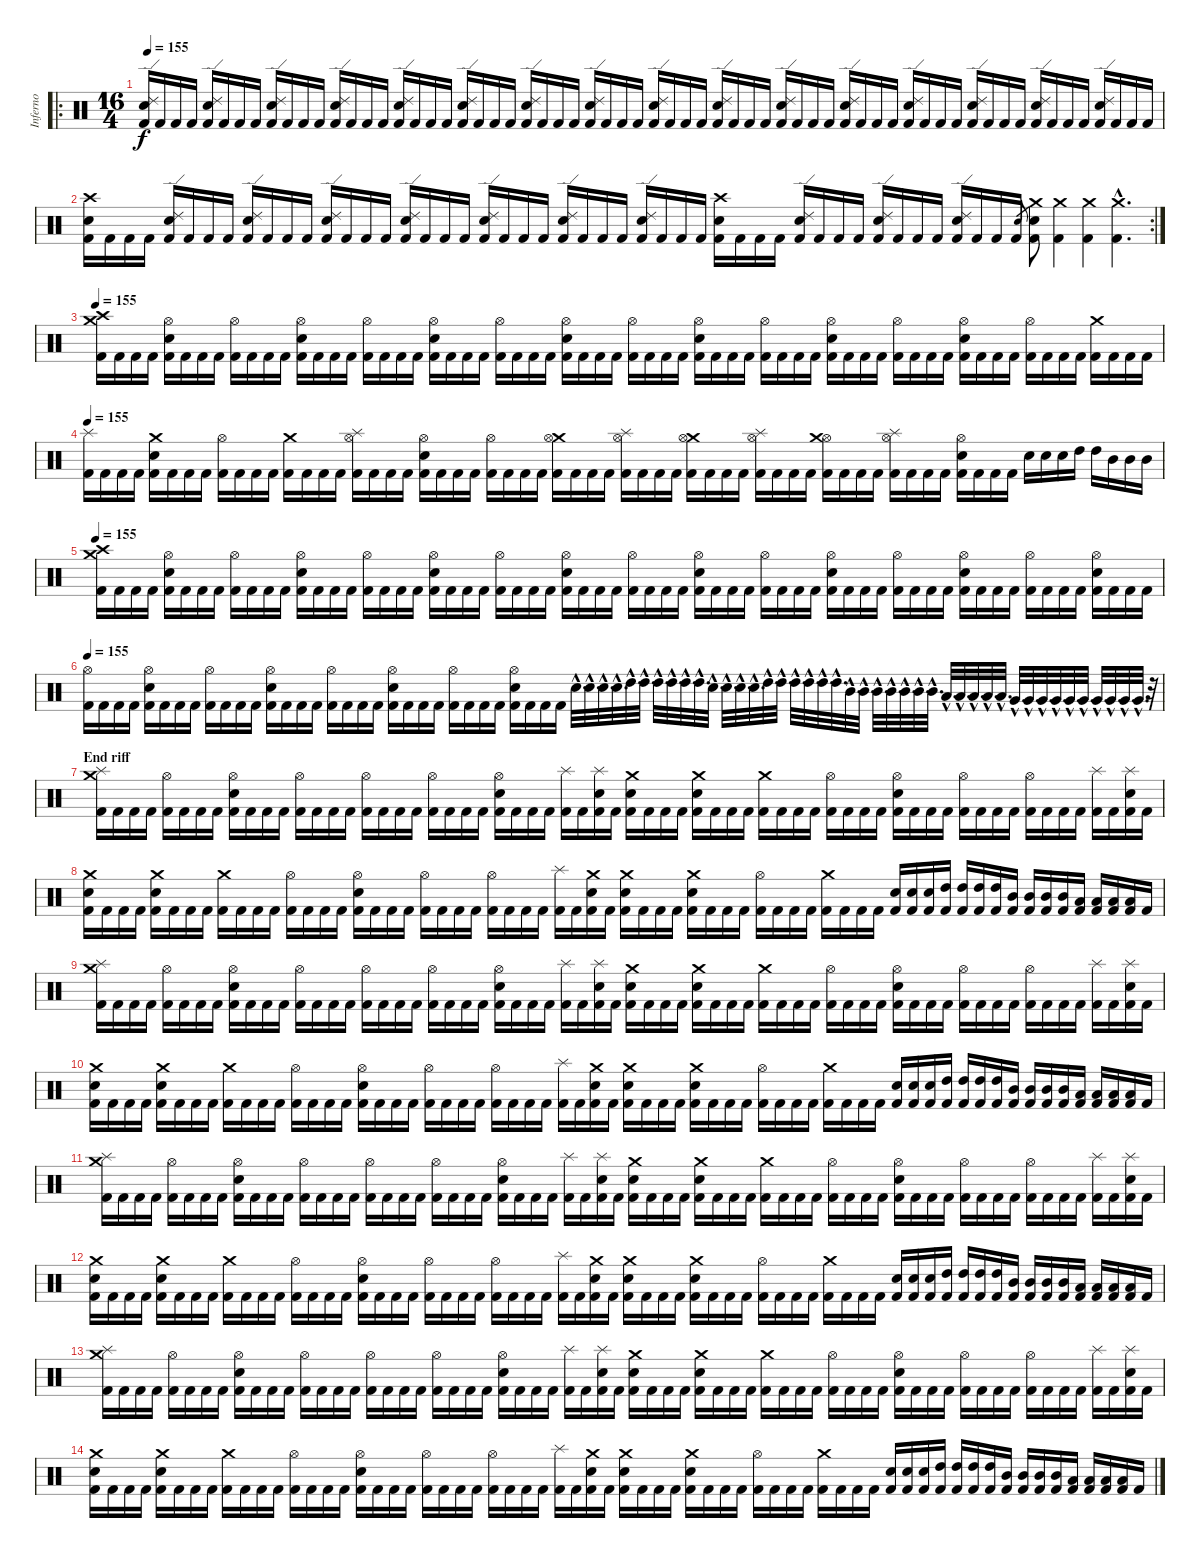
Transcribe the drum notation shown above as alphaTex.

\track ("Inferno" "Inferno") {instrument percussion}
\staff {score}
\articulation defaults
\ro
\ts (16 4)
\tempo 155
\clef neutral
\ks c
("Kick (hit) 2" "Electric Snare (hit)" "Ride (edge) 2").16{dy f} "Kick (hit) 2".16 "Kick (hit) 2".16 "Kick (hit) 2".16 ("Kick (hit) 2" "Ride (edge) 2" "Electric Snare (hit)").16 "Kick (hit) 2".16 "Kick (hit) 2".16 "Kick (hit) 2".16 ("Kick (hit) 2" "Electric Snare (hit)" "Ride (edge) 2").16 "Kick (hit) 2".16 "Kick (hit) 2".16 "Kick (hit) 2".16 ("Kick (hit) 2" "Ride (edge) 2" "Electric Snare (hit)").16 "Kick (hit) 2".16 "Kick (hit) 2".16 "Kick (hit) 2".16 ("Kick (hit) 2" "Electric Snare (hit)" "Ride (edge) 2").16 "Kick (hit) 2".16 "Kick (hit) 2".16 "Kick (hit) 2".16 ("Kick (hit) 2" "Ride (edge) 2" "Electric Snare (hit)").16 "Kick (hit) 2".16 "Kick (hit) 2".16 "Kick (hit) 2".16 ("Kick (hit) 2" "Electric Snare (hit)" "Ride (edge) 2").16 "Kick (hit) 2".16 "Kick (hit) 2".16 "Kick (hit) 2".16 ("Kick (hit) 2" "Ride (edge) 2" "Electric Snare (hit)").16 "Kick (hit) 2".16 "Kick (hit) 2".16 "Kick (hit) 2".16 ("Kick (hit) 2" "Electric Snare (hit)" "Ride (edge) 2").16 "Kick (hit) 2".16 "Kick (hit) 2".16 "Kick (hit) 2".16 ("Kick (hit) 2" "Ride (edge) 2" "Electric Snare (hit)").16 "Kick (hit) 2".16 "Kick (hit) 2".16 "Kick (hit) 2".16 ("Kick (hit) 2" "Electric Snare (hit)" "Ride (edge) 2").16 "Kick (hit) 2".16 "Kick (hit) 2".16 "Kick (hit) 2".16 ("Kick (hit) 2" "Ride (edge) 2" "Electric Snare (hit)").16 "Kick (hit) 2".16 "Kick (hit) 2".16 "Kick (hit) 2".16 ("Kick (hit) 2" "Electric Snare (hit)" "Ride (edge) 2").16 "Kick (hit) 2".16 "Kick (hit) 2".16 "Kick (hit) 2".16 ("Kick (hit) 2" "Ride (edge) 2" "Electric Snare (hit)").16 "Kick (hit) 2".16 "Kick (hit) 2".16 "Kick (hit) 2".16 ("Kick (hit) 2" "Electric Snare (hit)" "Ride (edge) 2").16 "Kick (hit) 2".16 "Kick (hit) 2".16 "Kick (hit) 2".16 ("Kick (hit) 2" "Ride (edge) 2" "Electric Snare (hit)").16 "Kick (hit) 2".16 "Kick (hit) 2".16 "Kick (hit) 2".16 |
\rc 2
("Kick (hit) 2" "Electric Snare (hit)" "Crash high (hit)").16 "Kick (hit) 2".16 "Kick (hit) 2".16 "Kick (hit) 2".16 ("Kick (hit) 2" "Ride (edge) 2" "Electric Snare (hit)").16 "Kick (hit) 2".16 "Kick (hit) 2".16 "Kick (hit) 2".16 ("Kick (hit) 2" "Electric Snare (hit)" "Ride (edge) 2").16 "Kick (hit) 2".16 "Kick (hit) 2".16 "Kick (hit) 2".16 ("Kick (hit) 2" "Ride (edge) 2" "Electric Snare (hit)").16 "Kick (hit) 2".16 "Kick (hit) 2".16 "Kick (hit) 2".16 ("Kick (hit) 2" "Electric Snare (hit)" "Ride (edge) 2").16 "Kick (hit) 2".16 "Kick (hit) 2".16 "Kick (hit) 2".16 ("Kick (hit) 2" "Ride (edge) 2" "Electric Snare (hit)").16 "Kick (hit) 2".16 "Kick (hit) 2".16 "Kick (hit) 2".16 ("Kick (hit) 2" "Electric Snare (hit)" "Ride (edge) 2").16 "Kick (hit) 2".16 "Kick (hit) 2".16 "Kick (hit) 2".16 ("Kick (hit) 2" "Ride (edge) 2" "Electric Snare (hit)").16 "Kick (hit) 2".16 "Kick (hit) 2".16 "Kick (hit) 2".16 ("Kick (hit) 2" "Electric Snare (hit)" "Crash high (hit)").16 "Kick (hit) 2".16 "Kick (hit) 2".16 "Kick (hit) 2".16 ("Kick (hit) 2" "Ride (edge) 2" "Electric Snare (hit)").16 "Kick (hit) 2".16 "Kick (hit) 2".16 "Kick (hit) 2".16 ("Kick (hit) 2" "Electric Snare (hit)" "Ride (edge) 2").16 "Kick (hit) 2".16 "Kick (hit) 2".16 "Kick (hit) 2".16 ("Kick (hit) 2" "Ride (edge) 2" "Electric Snare (hit)").16 "Kick (hit) 2".16 "Kick (hit) 2".16 "Kick (hit) 2".16 "Electric Snare (hit)".8{gr} ("Crash medium (hit)" "Electric Snare (hit)" "Kick (hit) 2").8 ("Crash medium (hit)" "Kick (hit) 2").4 ("Crash medium (hit)" "Kick (hit) 2").4 ("Crash medium (hit)"{hac} "Kick (hit) 2"{hac}).4{d} |
\tempo 155
("Kick (hit) 2" "Crash medium (hit)" "Crash high (hit)").16 "Kick (hit) 2".16 "Kick (hit) 2".16 "Kick (hit) 2".16 ("Kick (hit) 2" "Hi-Hat (open)" "Electric Snare (hit)").16 "Kick (hit) 2".16 "Kick (hit) 2".16 "Kick (hit) 2".16 ("Kick (hit) 2" "Hi-Hat (open)").16 "Kick (hit) 2".16 "Kick (hit) 2".16 "Kick (hit) 2".16 ("Kick (hit) 2" "Hi-Hat (open)" "Electric Snare (hit)").16 "Kick (hit) 2".16 "Kick (hit) 2".16 "Kick (hit) 2".16 ("Kick (hit) 2" "Hi-Hat (open)").16 "Kick (hit) 2".16 "Kick (hit) 2".16 "Kick (hit) 2".16 ("Kick (hit) 2" "Hi-Hat (open)" "Electric Snare (hit)").16 "Kick (hit) 2".16 "Kick (hit) 2".16 "Kick (hit) 2".16 ("Kick (hit) 2" "Hi-Hat (open)").16 "Kick (hit) 2".16 "Kick (hit) 2".16 "Kick (hit) 2".16 ("Kick (hit) 2" "Hi-Hat (open)" "Electric Snare (hit)").16 "Kick (hit) 2".16 "Kick (hit) 2".16 "Kick (hit) 2".16 ("Kick (hit) 2" "Hi-Hat (open)").16 "Kick (hit) 2".16 "Kick (hit) 2".16 "Kick (hit) 2".16 ("Kick (hit) 2" "Hi-Hat (open)" "Electric Snare (hit)").16 "Kick (hit) 2".16 "Kick (hit) 2".16 "Kick (hit) 2".16 ("Kick (hit) 2" "Hi-Hat (open)").16 "Kick (hit) 2".16 "Kick (hit) 2".16 "Kick (hit) 2".16 ("Kick (hit) 2" "Hi-Hat (open)" "Electric Snare (hit)").16 "Kick (hit) 2".16 "Kick (hit) 2".16 "Kick (hit) 2".16 ("Kick (hit) 2" "Hi-Hat (open)").16 "Kick (hit) 2".16 "Kick (hit) 2".16 "Kick (hit) 2".16 ("Kick (hit) 2" "Hi-Hat (open)" "Electric Snare (hit)").16 "Kick (hit) 2".16 "Kick (hit) 2".16 "Kick (hit) 2".16 ("Kick (hit) 2" "Hi-Hat (open)").16 "Kick (hit) 2".16 "Kick (hit) 2".16 "Kick (hit) 2".16 ("Kick (hit) 2" "Crash medium (hit)").16 "Kick (hit) 2".16 "Kick (hit) 2".16 "Kick (hit) 2".16 |
\tempo 155
("Kick (hit) 2" "Splash (hit)").16 "Kick (hit) 2".16 "Kick (hit) 2".16 "Kick (hit) 2".16 ("Kick (hit) 2" "Crash medium (hit)" "Electric Snare (hit)").16 "Kick (hit) 2".16 "Kick (hit) 2".16 "Kick (hit) 2".16 ("Kick (hit) 2" "Hi-Hat (open)").16 "Kick (hit) 2".16 "Kick (hit) 2".16 "Kick (hit) 2".16 ("Kick (hit) 2" "Crash medium (hit)").16 "Kick (hit) 2".16 "Kick (hit) 2".16 "Kick (hit) 2".16 ("Kick (hit) 2" "Splash (hit)" "Hi-Hat (open)").16 "Kick (hit) 2".16 "Kick (hit) 2".16 "Kick (hit) 2".16 ("Kick (hit) 2" "Hi-Hat (open)" "Electric Snare (hit)").16 "Kick (hit) 2".16 "Kick (hit) 2".16 "Kick (hit) 2".16 ("Kick (hit) 2" "Hi-Hat (open)").16 "Kick (hit) 2".16 "Kick (hit) 2".16 "Kick (hit) 2".16 ("Kick (hit) 2" "Crash medium (hit)" "Hi-Hat (open)").16 "Kick (hit) 2".16 "Kick (hit) 2".16 "Kick (hit) 2".16 ("Kick (hit) 2" "Splash (hit)" "Hi-Hat (open)").16 "Kick (hit) 2".16 "Kick (hit) 2".16 "Kick (hit) 2".16 ("Kick (hit) 2" "Crash medium (hit)" "Hi-Hat (open)").16 "Kick (hit) 2".16 "Kick (hit) 2".16 "Kick (hit) 2".16 ("Kick (hit) 2" "Splash (hit)" "Hi-Hat (open)").16 "Kick (hit) 2".16 "Kick (hit) 2".16 "Kick (hit) 2".16 ("Kick (hit) 2" "Hi-Hat (open)" "Crash medium (hit)").16 "Kick (hit) 2".16 "Kick (hit) 2".16 "Kick (hit) 2".16 ("Kick (hit) 2" "Splash (hit)" "Hi-Hat (open)").16 "Kick (hit) 2".16 "Kick (hit) 2".16 "Kick (hit) 2".16 ("Kick (hit) 2" "Hi-Hat (open)" "Electric Snare (hit)").16 "Kick (hit) 2".16 "Kick (hit) 2".16 "Kick (hit) 2".16 "Electric Snare (hit)".16 "Electric Snare (hit)".16 "Electric Snare (hit)".16 "High Tom (hit)".16 "High Tom (hit)".16 "Mid Tom (hit)".16 "Mid Tom (hit)".16 "Mid Tom (hit)".16 |
\tempo 155
("Kick (hit) 2" "Crash medium (hit)" "Crash high (hit)").16 "Kick (hit) 2".16 "Kick (hit) 2".16 "Kick (hit) 2".16 ("Kick (hit) 2" "Hi-Hat (open)" "Electric Snare (hit)").16 "Kick (hit) 2".16 "Kick (hit) 2".16 "Kick (hit) 2".16 ("Kick (hit) 2" "Hi-Hat (open)").16 "Kick (hit) 2".16 "Kick (hit) 2".16 "Kick (hit) 2".16 ("Kick (hit) 2" "Hi-Hat (open)" "Electric Snare (hit)").16 "Kick (hit) 2".16 "Kick (hit) 2".16 "Kick (hit) 2".16 ("Kick (hit) 2" "Hi-Hat (open)").16 "Kick (hit) 2".16 "Kick (hit) 2".16 "Kick (hit) 2".16 ("Kick (hit) 2" "Hi-Hat (open)" "Electric Snare (hit)").16 "Kick (hit) 2".16 "Kick (hit) 2".16 "Kick (hit) 2".16 ("Kick (hit) 2" "Hi-Hat (open)").16 "Kick (hit) 2".16 "Kick (hit) 2".16 "Kick (hit) 2".16 ("Kick (hit) 2" "Hi-Hat (open)" "Electric Snare (hit)").16 "Kick (hit) 2".16 "Kick (hit) 2".16 "Kick (hit) 2".16 ("Kick (hit) 2" "Hi-Hat (open)").16 "Kick (hit) 2".16 "Kick (hit) 2".16 "Kick (hit) 2".16 ("Kick (hit) 2" "Hi-Hat (open)" "Electric Snare (hit)").16 "Kick (hit) 2".16 "Kick (hit) 2".16 "Kick (hit) 2".16 ("Kick (hit) 2" "Hi-Hat (open)").16 "Kick (hit) 2".16 "Kick (hit) 2".16 "Kick (hit) 2".16 ("Kick (hit) 2" "Hi-Hat (open)" "Electric Snare (hit)").16 "Kick (hit) 2".16 "Kick (hit) 2".16 "Kick (hit) 2".16 ("Kick (hit) 2" "Hi-Hat (open)").16 "Kick (hit) 2".16 "Kick (hit) 2".16 "Kick (hit) 2".16 ("Kick (hit) 2" "Hi-Hat (open)" "Electric Snare (hit)").16 "Kick (hit) 2".16 "Kick (hit) 2".16 "Kick (hit) 2".16 ("Kick (hit) 2" "Hi-Hat (open)").16 "Kick (hit) 2".16 "Kick (hit) 2".16 "Kick (hit) 2".16 ("Kick (hit) 2" "Hi-Hat (open)" "Electric Snare (hit)").16 "Kick (hit) 2".16 "Kick (hit) 2".16 "Kick (hit) 2".16 |
\tempo 155
("Kick (hit) 2" "Hi-Hat (open)").16 "Kick (hit) 2".16 "Kick (hit) 2".16 "Kick (hit) 2".16 ("Kick (hit) 2" "Hi-Hat (open)" "Electric Snare (hit)").16 "Kick (hit) 2".16 "Kick (hit) 2".16 "Kick (hit) 2".16 ("Kick (hit) 2" "Hi-Hat (open)").16 "Kick (hit) 2".16 "Kick (hit) 2".16 "Kick (hit) 2".16 ("Kick (hit) 2" "Hi-Hat (open)" "Electric Snare (hit)").16 "Kick (hit) 2".16 "Kick (hit) 2".16 "Kick (hit) 2".16 ("Kick (hit) 2" "Hi-Hat (open)").16 "Kick (hit) 2".16 "Kick (hit) 2".16 "Kick (hit) 2".16 ("Kick (hit) 2" "Hi-Hat (open)" "Electric Snare (hit)").16 "Kick (hit) 2".16 "Kick (hit) 2".16 "Kick (hit) 2".16 ("Kick (hit) 2" "Hi-Hat (open)").16 "Kick (hit) 2".16 "Kick (hit) 2".16 "Kick (hit) 2".16 ("Kick (hit) 2" "Hi-Hat (open)" "Electric Snare (hit)").16 "Kick (hit) 2".16 "Kick (hit) 2".16 "Kick (hit) 2".16 "Electric Snare (hit)"{hac}.32{d} "Electric Snare (hit)"{hac}.32{d} "Electric Snare (hit)"{hac}.32{d} "Electric Snare (hit)"{hac}.32{d} "High Tom (hit)"{hac}.32{d} "High Tom (hit)"{hac}.32{d} "High Tom (hit)"{hac}.32{d} "High Tom (hit)"{hac}.32{d} "High Tom (hit)"{hac}.32{d} "High Tom (hit)"{hac}.32{d} "Electric Snare (hit)"{hac}.32{d} "Electric Snare (hit)"{hac}.32{d} "Electric Snare (hit)"{hac}.32{d} "Electric Snare (hit)"{hac}.32{d} "High Tom (hit)"{hac}.32{d} "High Tom (hit)"{hac}.32{d} "High Tom (hit)"{hac}.32{d} "High Tom (hit)"{hac}.32{d} "High Tom (hit)"{hac}.32{d} "High Tom (hit)"{hac}.32{d} "Mid Tom (hit)"{hac}.32{d} "Mid Tom (hit)"{hac}.32{d} "Mid Tom (hit)"{hac}.32{d} "Mid Tom (hit)"{hac}.32{d} "Mid Tom (hit)"{hac}.32{d} "Mid Tom (hit)"{hac}.32{d} "Mid Tom (hit)"{hac}.32{d} "Low Tom (hit)"{hac}.32{d} "Low Tom (hit)"{hac}.32{d} "Low Tom (hit)"{hac}.32{d} "Low Tom (hit)"{hac}.32{d} "Low Tom (hit)"{hac}.32{d} "Very Low Tom (hit)"{hac}.32{d} "Very Low Tom (hit)"{hac}.32{d} "Very Low Tom (hit)"{hac}.32{d} "Very Low Tom (hit)"{hac}.32{d} "Very Low Tom (hit)"{hac}.32{d} "Very Low Tom (hit)"{hac}.32{d} "Very Low Tom (hit)"{hac}.32{d} "Very Low Tom (hit)"{hac}.32{d} "Very Low Tom (hit)"{hac}.32{d} "Very Low Tom (hit)"{hac}.32{d} r.32 |
\section ("" "End riff")
("Splash (hit)" "Crash medium (hit)" "Kick (hit) 2").16 "Kick (hit) 2".16 "Kick (hit) 2".16 "Kick (hit) 2".16 ("Hi-Hat (open)" "Kick (hit) 2").16 "Kick (hit) 2".16 "Kick (hit) 2".16 "Kick (hit) 2".16 ("Hi-Hat (open)" "Electric Snare (hit)" "Kick (hit) 2").16 "Kick (hit) 2".16 "Kick (hit) 2".16 "Kick (hit) 2".16 ("Hi-Hat (open)" "Kick (hit) 2").16 "Kick (hit) 2".16 "Kick (hit) 2".16 "Kick (hit) 2".16 ("Hi-Hat (open)" "Kick (hit) 2").16 "Kick (hit) 2".16 "Kick (hit) 2".16 "Kick (hit) 2".16 ("Hi-Hat (open)" "Kick (hit) 2").16 "Kick (hit) 2".16 "Kick (hit) 2".16 "Kick (hit) 2".16 ("Hi-Hat (open)" "Electric Snare (hit)" "Kick (hit) 2").16 "Kick (hit) 2".16 "Kick (hit) 2".16 "Kick (hit) 2".16 ("Splash (hit)" "Kick (hit) 2").16 "Kick (hit) 2".16 ("Splash (hit)" "Electric Snare (hit)" "Kick (hit) 2").16 "Kick (hit) 2".16 ("Crash medium (hit)" "Electric Snare (hit)" "Kick (hit) 2").16 "Kick (hit) 2".16 "Kick (hit) 2".16 "Kick (hit) 2".16 ("Crash medium (hit)" "Electric Snare (hit)" "Kick (hit) 2").16 "Kick (hit) 2".16 "Kick (hit) 2".16 "Kick (hit) 2".16 ("Crash medium (hit)" "Kick (hit) 2").16 "Kick (hit) 2".16 "Kick (hit) 2".16 "Kick (hit) 2".16 ("Hi-Hat (open)" "Kick (hit) 2").16 "Kick (hit) 2".16 "Kick (hit) 2".16 "Kick (hit) 2".16 ("Hi-Hat (open)" "Electric Snare (hit)" "Kick (hit) 2").16 "Kick (hit) 2".16 "Kick (hit) 2".16 "Kick (hit) 2".16 ("Hi-Hat (open)" "Kick (hit) 2").16 "Kick (hit) 2".16 "Kick (hit) 2".16 "Kick (hit) 2".16 ("Hi-Hat (open)" "Kick (hit) 2").16 "Kick (hit) 2".16 "Kick (hit) 2".16 "Kick (hit) 2".16 ("Splash (hit)" "Kick (hit) 2").16 "Kick (hit) 2".16 ("Splash (hit)" "Electric Snare (hit)" "Kick (hit) 2").16 "Kick (hit) 2".16 |
("Crash medium (hit)" "Electric Snare (hit)" "Kick (hit) 2").16 "Kick (hit) 2".16 "Kick (hit) 2".16 "Kick (hit) 2".16 ("Crash medium (hit)" "Electric Snare (hit)" "Kick (hit) 2").16 "Kick (hit) 2".16 "Kick (hit) 2".16 "Kick (hit) 2".16 ("Crash medium (hit)" "Kick (hit) 2").16 "Kick (hit) 2".16 "Kick (hit) 2".16 "Kick (hit) 2".16 ("Hi-Hat (open)" "Kick (hit) 2").16 "Kick (hit) 2".16 "Kick (hit) 2".16 "Kick (hit) 2".16 ("Hi-Hat (open)" "Electric Snare (hit)" "Kick (hit) 2").16 "Kick (hit) 2".16 "Kick (hit) 2".16 "Kick (hit) 2".16 ("Hi-Hat (open)" "Kick (hit) 2").16 "Kick (hit) 2".16 "Kick (hit) 2".16 "Kick (hit) 2".16 ("Hi-Hat (open)" "Kick (hit) 2").16 "Kick (hit) 2".16 "Kick (hit) 2".16 "Kick (hit) 2".16 ("Splash (hit)" "Kick (hit) 2").16 "Kick (hit) 2".16 ("Crash medium (hit)" "Electric Snare (hit)" "Kick (hit) 2").16 "Kick (hit) 2".16 ("Crash medium (hit)" "Electric Snare (hit)" "Kick (hit) 2").16 "Kick (hit) 2".16 "Kick (hit) 2".16 "Kick (hit) 2".16 ("Crash medium (hit)" "Electric Snare (hit)" "Kick (hit) 2").16 "Kick (hit) 2".16 "Kick (hit) 2".16 "Kick (hit) 2".16 ("Hi-Hat (open)" "Kick (hit) 2").16 "Kick (hit) 2".16 "Kick (hit) 2".16 "Kick (hit) 2".16 ("Crash medium (hit)" "Kick (hit) 2").16 "Kick (hit) 2".16 "Kick (hit) 2".16 "Kick (hit) 2".16 ("Electric Snare (hit)" "Kick (hit) 2").16 ("Electric Snare (hit)" "Kick (hit) 2").16 ("Electric Snare (hit)" "Kick (hit) 2").16 ("High Tom (hit)" "Kick (hit) 2").16 ("High Tom (hit)" "Kick (hit) 2").16 ("High Tom (hit)" "Kick (hit) 2").16 ("High Tom (hit)" "Kick (hit) 2").16 ("Mid Tom (hit)" "Kick (hit) 2").16 ("Mid Tom (hit)" "Kick (hit) 2").16 ("Mid Tom (hit)" "Kick (hit) 2").16 ("Mid Tom (hit)" "Kick (hit) 2").16 ("Low Tom (hit)" "Kick (hit) 2").16 ("Low Tom (hit)" "Kick (hit) 2").16 ("Low Tom (hit)" "Kick (hit) 2").16 ("Low Tom (hit)" "Kick (hit) 2").16 "Kick (hit) 2".16 |
("Splash (hit)" "Crash medium (hit)" "Kick (hit) 2").16 "Kick (hit) 2".16 "Kick (hit) 2".16 "Kick (hit) 2".16 ("Hi-Hat (open)" "Kick (hit) 2").16 "Kick (hit) 2".16 "Kick (hit) 2".16 "Kick (hit) 2".16 ("Hi-Hat (open)" "Electric Snare (hit)" "Kick (hit) 2").16 "Kick (hit) 2".16 "Kick (hit) 2".16 "Kick (hit) 2".16 ("Hi-Hat (open)" "Kick (hit) 2").16 "Kick (hit) 2".16 "Kick (hit) 2".16 "Kick (hit) 2".16 ("Hi-Hat (open)" "Kick (hit) 2").16 "Kick (hit) 2".16 "Kick (hit) 2".16 "Kick (hit) 2".16 ("Hi-Hat (open)" "Kick (hit) 2").16 "Kick (hit) 2".16 "Kick (hit) 2".16 "Kick (hit) 2".16 ("Hi-Hat (open)" "Electric Snare (hit)" "Kick (hit) 2").16 "Kick (hit) 2".16 "Kick (hit) 2".16 "Kick (hit) 2".16 ("Splash (hit)" "Kick (hit) 2").16 "Kick (hit) 2".16 ("Splash (hit)" "Electric Snare (hit)" "Kick (hit) 2").16 "Kick (hit) 2".16 ("Crash medium (hit)" "Electric Snare (hit)" "Kick (hit) 2").16 "Kick (hit) 2".16 "Kick (hit) 2".16 "Kick (hit) 2".16 ("Crash medium (hit)" "Electric Snare (hit)" "Kick (hit) 2").16 "Kick (hit) 2".16 "Kick (hit) 2".16 "Kick (hit) 2".16 ("Crash medium (hit)" "Kick (hit) 2").16 "Kick (hit) 2".16 "Kick (hit) 2".16 "Kick (hit) 2".16 ("Hi-Hat (open)" "Kick (hit) 2").16 "Kick (hit) 2".16 "Kick (hit) 2".16 "Kick (hit) 2".16 ("Hi-Hat (open)" "Electric Snare (hit)" "Kick (hit) 2").16 "Kick (hit) 2".16 "Kick (hit) 2".16 "Kick (hit) 2".16 ("Hi-Hat (open)" "Kick (hit) 2").16 "Kick (hit) 2".16 "Kick (hit) 2".16 "Kick (hit) 2".16 ("Hi-Hat (open)" "Kick (hit) 2").16 "Kick (hit) 2".16 "Kick (hit) 2".16 "Kick (hit) 2".16 ("Splash (hit)" "Kick (hit) 2").16 "Kick (hit) 2".16 ("Splash (hit)" "Electric Snare (hit)" "Kick (hit) 2").16 "Kick (hit) 2".16 |
("Crash medium (hit)" "Electric Snare (hit)" "Kick (hit) 2").16 "Kick (hit) 2".16 "Kick (hit) 2".16 "Kick (hit) 2".16 ("Crash medium (hit)" "Electric Snare (hit)" "Kick (hit) 2").16 "Kick (hit) 2".16 "Kick (hit) 2".16 "Kick (hit) 2".16 ("Crash medium (hit)" "Kick (hit) 2").16 "Kick (hit) 2".16 "Kick (hit) 2".16 "Kick (hit) 2".16 ("Hi-Hat (open)" "Kick (hit) 2").16 "Kick (hit) 2".16 "Kick (hit) 2".16 "Kick (hit) 2".16 ("Hi-Hat (open)" "Electric Snare (hit)" "Kick (hit) 2").16 "Kick (hit) 2".16 "Kick (hit) 2".16 "Kick (hit) 2".16 ("Hi-Hat (open)" "Kick (hit) 2").16 "Kick (hit) 2".16 "Kick (hit) 2".16 "Kick (hit) 2".16 ("Hi-Hat (open)" "Kick (hit) 2").16 "Kick (hit) 2".16 "Kick (hit) 2".16 "Kick (hit) 2".16 ("Splash (hit)" "Kick (hit) 2").16 "Kick (hit) 2".16 ("Crash medium (hit)" "Electric Snare (hit)" "Kick (hit) 2").16 "Kick (hit) 2".16 ("Crash medium (hit)" "Electric Snare (hit)" "Kick (hit) 2").16 "Kick (hit) 2".16 "Kick (hit) 2".16 "Kick (hit) 2".16 ("Crash medium (hit)" "Electric Snare (hit)" "Kick (hit) 2").16 "Kick (hit) 2".16 "Kick (hit) 2".16 "Kick (hit) 2".16 ("Hi-Hat (open)" "Kick (hit) 2").16 "Kick (hit) 2".16 "Kick (hit) 2".16 "Kick (hit) 2".16 ("Crash medium (hit)" "Kick (hit) 2").16 "Kick (hit) 2".16 "Kick (hit) 2".16 "Kick (hit) 2".16 ("Electric Snare (hit)" "Kick (hit) 2").16 ("Electric Snare (hit)" "Kick (hit) 2").16 ("Electric Snare (hit)" "Kick (hit) 2").16 ("High Tom (hit)" "Kick (hit) 2").16 ("High Tom (hit)" "Kick (hit) 2").16 ("High Tom (hit)" "Kick (hit) 2").16 ("High Tom (hit)" "Kick (hit) 2").16 ("Mid Tom (hit)" "Kick (hit) 2").16 ("Mid Tom (hit)" "Kick (hit) 2").16 ("Mid Tom (hit)" "Kick (hit) 2").16 ("Mid Tom (hit)" "Kick (hit) 2").16 ("Low Tom (hit)" "Kick (hit) 2").16 ("Low Tom (hit)" "Kick (hit) 2").16 ("Low Tom (hit)" "Kick (hit) 2").16 ("Low Tom (hit)" "Kick (hit) 2").16 "Kick (hit) 2".16 |
("Splash (hit)" "Crash medium (hit)" "Kick (hit) 2").16 "Kick (hit) 2".16 "Kick (hit) 2".16 "Kick (hit) 2".16 ("Hi-Hat (open)" "Kick (hit) 2").16 "Kick (hit) 2".16 "Kick (hit) 2".16 "Kick (hit) 2".16 ("Hi-Hat (open)" "Electric Snare (hit)" "Kick (hit) 2").16 "Kick (hit) 2".16 "Kick (hit) 2".16 "Kick (hit) 2".16 ("Hi-Hat (open)" "Kick (hit) 2").16 "Kick (hit) 2".16 "Kick (hit) 2".16 "Kick (hit) 2".16 ("Hi-Hat (open)" "Kick (hit) 2").16 "Kick (hit) 2".16 "Kick (hit) 2".16 "Kick (hit) 2".16 ("Hi-Hat (open)" "Kick (hit) 2").16 "Kick (hit) 2".16 "Kick (hit) 2".16 "Kick (hit) 2".16 ("Hi-Hat (open)" "Electric Snare (hit)" "Kick (hit) 2").16 "Kick (hit) 2".16 "Kick (hit) 2".16 "Kick (hit) 2".16 ("Splash (hit)" "Kick (hit) 2").16 "Kick (hit) 2".16 ("Splash (hit)" "Electric Snare (hit)" "Kick (hit) 2").16 "Kick (hit) 2".16 ("Crash medium (hit)" "Electric Snare (hit)" "Kick (hit) 2").16 "Kick (hit) 2".16 "Kick (hit) 2".16 "Kick (hit) 2".16 ("Crash medium (hit)" "Electric Snare (hit)" "Kick (hit) 2").16 "Kick (hit) 2".16 "Kick (hit) 2".16 "Kick (hit) 2".16 ("Crash medium (hit)" "Kick (hit) 2").16 "Kick (hit) 2".16 "Kick (hit) 2".16 "Kick (hit) 2".16 ("Hi-Hat (open)" "Kick (hit) 2").16 "Kick (hit) 2".16 "Kick (hit) 2".16 "Kick (hit) 2".16 ("Hi-Hat (open)" "Electric Snare (hit)" "Kick (hit) 2").16 "Kick (hit) 2".16 "Kick (hit) 2".16 "Kick (hit) 2".16 ("Hi-Hat (open)" "Kick (hit) 2").16 "Kick (hit) 2".16 "Kick (hit) 2".16 "Kick (hit) 2".16 ("Hi-Hat (open)" "Kick (hit) 2").16 "Kick (hit) 2".16 "Kick (hit) 2".16 "Kick (hit) 2".16 ("Splash (hit)" "Kick (hit) 2").16 "Kick (hit) 2".16 ("Splash (hit)" "Electric Snare (hit)" "Kick (hit) 2").16 "Kick (hit) 2".16 |
("Crash medium (hit)" "Electric Snare (hit)" "Kick (hit) 2").16 "Kick (hit) 2".16 "Kick (hit) 2".16 "Kick (hit) 2".16 ("Crash medium (hit)" "Electric Snare (hit)" "Kick (hit) 2").16 "Kick (hit) 2".16 "Kick (hit) 2".16 "Kick (hit) 2".16 ("Crash medium (hit)" "Kick (hit) 2").16 "Kick (hit) 2".16 "Kick (hit) 2".16 "Kick (hit) 2".16 ("Hi-Hat (open)" "Kick (hit) 2").16 "Kick (hit) 2".16 "Kick (hit) 2".16 "Kick (hit) 2".16 ("Hi-Hat (open)" "Electric Snare (hit)" "Kick (hit) 2").16 "Kick (hit) 2".16 "Kick (hit) 2".16 "Kick (hit) 2".16 ("Hi-Hat (open)" "Kick (hit) 2").16 "Kick (hit) 2".16 "Kick (hit) 2".16 "Kick (hit) 2".16 ("Hi-Hat (open)" "Kick (hit) 2").16 "Kick (hit) 2".16 "Kick (hit) 2".16 "Kick (hit) 2".16 ("Splash (hit)" "Kick (hit) 2").16 "Kick (hit) 2".16 ("Crash medium (hit)" "Electric Snare (hit)" "Kick (hit) 2").16 "Kick (hit) 2".16 ("Crash medium (hit)" "Electric Snare (hit)" "Kick (hit) 2").16 "Kick (hit) 2".16 "Kick (hit) 2".16 "Kick (hit) 2".16 ("Crash medium (hit)" "Electric Snare (hit)" "Kick (hit) 2").16 "Kick (hit) 2".16 "Kick (hit) 2".16 "Kick (hit) 2".16 ("Hi-Hat (open)" "Kick (hit) 2").16 "Kick (hit) 2".16 "Kick (hit) 2".16 "Kick (hit) 2".16 ("Crash medium (hit)" "Kick (hit) 2").16 "Kick (hit) 2".16 "Kick (hit) 2".16 "Kick (hit) 2".16 ("Electric Snare (hit)" "Kick (hit) 2").16 ("Electric Snare (hit)" "Kick (hit) 2").16 ("Electric Snare (hit)" "Kick (hit) 2").16 ("High Tom (hit)" "Kick (hit) 2").16 ("High Tom (hit)" "Kick (hit) 2").16 ("High Tom (hit)" "Kick (hit) 2").16 ("High Tom (hit)" "Kick (hit) 2").16 ("Mid Tom (hit)" "Kick (hit) 2").16 ("Mid Tom (hit)" "Kick (hit) 2").16 ("Mid Tom (hit)" "Kick (hit) 2").16 ("Mid Tom (hit)" "Kick (hit) 2").16 ("Low Tom (hit)" "Kick (hit) 2").16 ("Low Tom (hit)" "Kick (hit) 2").16 ("Low Tom (hit)" "Kick (hit) 2").16 ("Low Tom (hit)" "Kick (hit) 2").16 "Kick (hit) 2".16 |
("Splash (hit)" "Crash medium (hit)" "Kick (hit) 2").16 "Kick (hit) 2".16 "Kick (hit) 2".16 "Kick (hit) 2".16 ("Hi-Hat (open)" "Kick (hit) 2").16 "Kick (hit) 2".16 "Kick (hit) 2".16 "Kick (hit) 2".16 ("Hi-Hat (open)" "Electric Snare (hit)" "Kick (hit) 2").16 "Kick (hit) 2".16 "Kick (hit) 2".16 "Kick (hit) 2".16 ("Hi-Hat (open)" "Kick (hit) 2").16 "Kick (hit) 2".16 "Kick (hit) 2".16 "Kick (hit) 2".16 ("Hi-Hat (open)" "Kick (hit) 2").16 "Kick (hit) 2".16 "Kick (hit) 2".16 "Kick (hit) 2".16 ("Hi-Hat (open)" "Kick (hit) 2").16 "Kick (hit) 2".16 "Kick (hit) 2".16 "Kick (hit) 2".16 ("Hi-Hat (open)" "Electric Snare (hit)" "Kick (hit) 2").16 "Kick (hit) 2".16 "Kick (hit) 2".16 "Kick (hit) 2".16 ("Splash (hit)" "Kick (hit) 2").16 "Kick (hit) 2".16 ("Splash (hit)" "Electric Snare (hit)" "Kick (hit) 2").16 "Kick (hit) 2".16 ("Crash medium (hit)" "Electric Snare (hit)" "Kick (hit) 2").16 "Kick (hit) 2".16 "Kick (hit) 2".16 "Kick (hit) 2".16 ("Crash medium (hit)" "Electric Snare (hit)" "Kick (hit) 2").16 "Kick (hit) 2".16 "Kick (hit) 2".16 "Kick (hit) 2".16 ("Crash medium (hit)" "Kick (hit) 2").16 "Kick (hit) 2".16 "Kick (hit) 2".16 "Kick (hit) 2".16 ("Hi-Hat (open)" "Kick (hit) 2").16 "Kick (hit) 2".16 "Kick (hit) 2".16 "Kick (hit) 2".16 ("Hi-Hat (open)" "Electric Snare (hit)" "Kick (hit) 2").16 "Kick (hit) 2".16 "Kick (hit) 2".16 "Kick (hit) 2".16 ("Hi-Hat (open)" "Kick (hit) 2").16 "Kick (hit) 2".16 "Kick (hit) 2".16 "Kick (hit) 2".16 ("Hi-Hat (open)" "Kick (hit) 2").16 "Kick (hit) 2".16 "Kick (hit) 2".16 "Kick (hit) 2".16 ("Splash (hit)" "Kick (hit) 2").16 "Kick (hit) 2".16 ("Splash (hit)" "Electric Snare (hit)" "Kick (hit) 2").16 "Kick (hit) 2".16 |
("Crash medium (hit)" "Electric Snare (hit)" "Kick (hit) 2").16 "Kick (hit) 2".16 "Kick (hit) 2".16 "Kick (hit) 2".16 ("Crash medium (hit)" "Electric Snare (hit)" "Kick (hit) 2").16 "Kick (hit) 2".16 "Kick (hit) 2".16 "Kick (hit) 2".16 ("Crash medium (hit)" "Kick (hit) 2").16 "Kick (hit) 2".16 "Kick (hit) 2".16 "Kick (hit) 2".16 ("Hi-Hat (open)" "Kick (hit) 2").16 "Kick (hit) 2".16 "Kick (hit) 2".16 "Kick (hit) 2".16 ("Hi-Hat (open)" "Electric Snare (hit)" "Kick (hit) 2").16 "Kick (hit) 2".16 "Kick (hit) 2".16 "Kick (hit) 2".16 ("Hi-Hat (open)" "Kick (hit) 2").16 "Kick (hit) 2".16 "Kick (hit) 2".16 "Kick (hit) 2".16 ("Hi-Hat (open)" "Kick (hit) 2").16 "Kick (hit) 2".16 "Kick (hit) 2".16 "Kick (hit) 2".16 ("Splash (hit)" "Kick (hit) 2").16 "Kick (hit) 2".16 ("Crash medium (hit)" "Electric Snare (hit)" "Kick (hit) 2").16 "Kick (hit) 2".16 ("Crash medium (hit)" "Electric Snare (hit)" "Kick (hit) 2").16 "Kick (hit) 2".16 "Kick (hit) 2".16 "Kick (hit) 2".16 ("Crash medium (hit)" "Electric Snare (hit)" "Kick (hit) 2").16 "Kick (hit) 2".16 "Kick (hit) 2".16 "Kick (hit) 2".16 ("Hi-Hat (open)" "Kick (hit) 2").16 "Kick (hit) 2".16 "Kick (hit) 2".16 "Kick (hit) 2".16 ("Crash medium (hit)" "Kick (hit) 2").16 "Kick (hit) 2".16 "Kick (hit) 2".16 "Kick (hit) 2".16 ("Electric Snare (hit)" "Kick (hit) 2").16 ("Electric Snare (hit)" "Kick (hit) 2").16 ("Electric Snare (hit)" "Kick (hit) 2").16 ("High Tom (hit)" "Kick (hit) 2").16 ("High Tom (hit)" "Kick (hit) 2").16 ("High Tom (hit)" "Kick (hit) 2").16 ("High Tom (hit)" "Kick (hit) 2").16 ("Mid Tom (hit)" "Kick (hit) 2").16 ("Mid Tom (hit)" "Kick (hit) 2").16 ("Mid Tom (hit)" "Kick (hit) 2").16 ("Mid Tom (hit)" "Kick (hit) 2").16 ("Low Tom (hit)" "Kick (hit) 2").16 ("Low Tom (hit)" "Kick (hit) 2").16 ("Low Tom (hit)" "Kick (hit) 2").16 ("Low Tom (hit)" "Kick (hit) 2").16 "Kick (hit) 2".16
